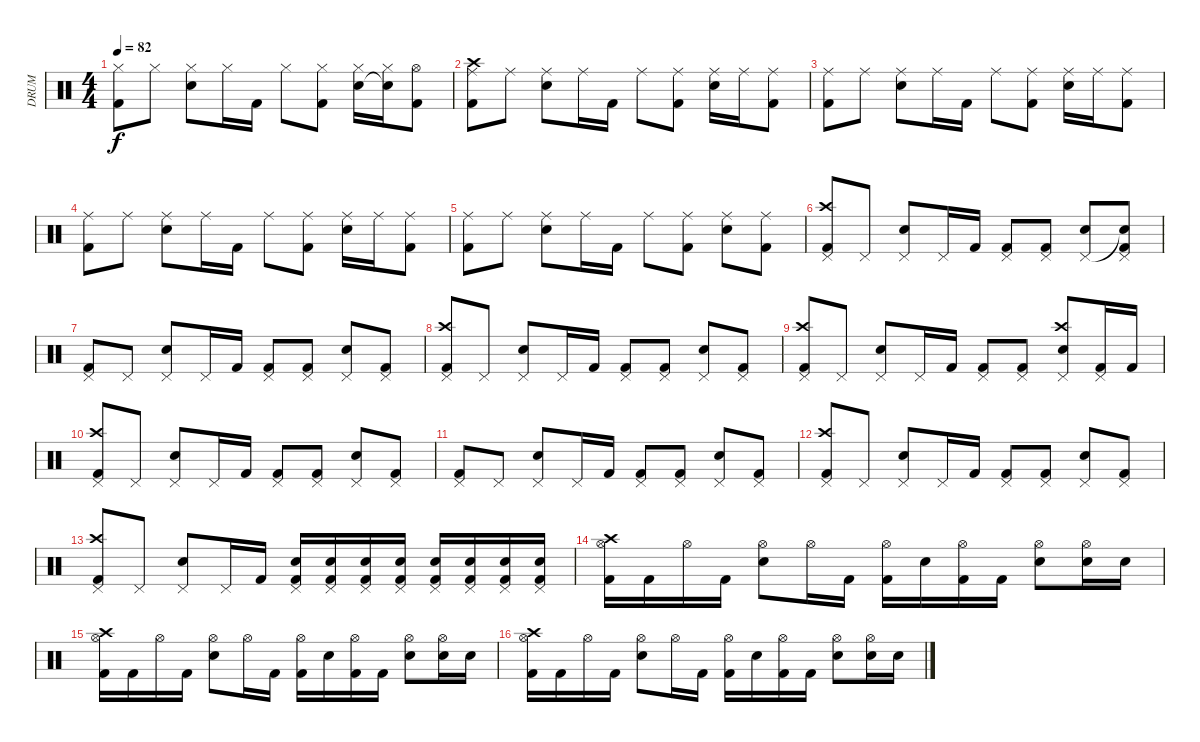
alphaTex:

\track ("DRUM" "DRUM") {instrument percussion}
\staff {score}
\articulation defaults
\ts (4 4)
\tempo 82
\clef neutral
\ks c
("Hi-Hat (closed)" "Kick (hit) 2").8{dy f} "Hi-Hat (closed)".8 ("Hi-Hat (closed)" "Electric Snare (hit)").8 "Hi-Hat (closed)".16 "Kick (hit) 2".16 "Hi-Hat (closed)".8 ("Hi-Hat (closed)" "Kick (hit) 2").8 ("Hi-Hat (closed)" "Electric Snare (hit)").16 ("Hi-Hat (closed)" "Snare (hit)"{t}).16 ("Hi-Hat (open)" "Kick (hit) 2").8 |
("Crash high (hit)" "Ride (middle)" "Kick (hit) 2").8 "Ride (middle)".8 ("Ride (middle)" "Electric Snare (hit)").8 "Ride (middle)".16 "Kick (hit) 2".16 "Ride (middle)".8 ("Ride (middle)" "Kick (hit) 2").8 ("Ride (middle)" "Electric Snare (hit)").16 "Ride (middle)".16 ("Ride (middle)" "Kick (hit) 2").8 |
("Ride (middle)" "Kick (hit) 2").8 "Ride (middle)".8 ("Ride (middle)" "Electric Snare (hit)").8 "Ride (middle)".16 "Kick (hit) 2".16 "Ride (middle)".8 ("Ride (middle)" "Kick (hit) 2").8 ("Ride (middle)" "Electric Snare (hit)").16 "Ride (middle)".16 ("Ride (middle)" "Kick (hit) 2").8 |
("Ride (middle)" "Kick (hit) 2").8 "Ride (middle)".8 ("Ride (middle)" "Electric Snare (hit)").8 "Ride (middle)".16 "Kick (hit) 2".16 "Ride (middle)".8 ("Ride (middle)" "Kick (hit) 2").8 ("Ride (middle)" "Electric Snare (hit)").16 "Ride (middle)".16 ("Ride (middle)" "Kick (hit) 2").8 |
("Ride (middle)" "Kick (hit) 2").8 "Ride (middle)".8 ("Ride (middle)" "Electric Snare (hit)").8 "Ride (middle)".16 "Kick (hit) 2".16 "Ride (middle)".8 ("Ride (middle)" "Kick (hit) 2").8 ("Ride (middle)" "Electric Snare (hit)").8 ("Ride (middle)" "Kick (hit) 2").8 |
("Crash high (hit)" "Pedal Hi-Hat (hit)" "Kick (hit) 2").8 "Pedal Hi-Hat (hit)".8 ("Pedal Hi-Hat (hit)" "Electric Snare (hit)").8 "Pedal Hi-Hat (hit)".16 "Kick (hit) 2".16 ("Pedal Hi-Hat (hit)" "Kick (hit) 2").8 ("Pedal Hi-Hat (hit)" "Kick (hit) 2").8 ("Pedal Hi-Hat (hit)" "Electric Snare (hit)").8 ("Snare (hit)"{t} "Pedal Hi-Hat (hit)" "Kick (hit) 2").8 |
("Pedal Hi-Hat (hit)" "Kick (hit) 2").8 "Pedal Hi-Hat (hit)".8 ("Pedal Hi-Hat (hit)" "Electric Snare (hit)").8 "Pedal Hi-Hat (hit)".16 "Kick (hit) 2".16 ("Pedal Hi-Hat (hit)" "Kick (hit) 2").8 ("Pedal Hi-Hat (hit)" "Kick (hit) 2").8 ("Pedal Hi-Hat (hit)" "Electric Snare (hit)").8 ("Pedal Hi-Hat (hit)" "Kick (hit) 2").8 |
("Crash high (hit)" "Pedal Hi-Hat (hit)" "Kick (hit) 2").8 "Pedal Hi-Hat (hit)".8 ("Pedal Hi-Hat (hit)" "Electric Snare (hit)").8 "Pedal Hi-Hat (hit)".16 "Kick (hit) 2".16 ("Pedal Hi-Hat (hit)" "Kick (hit) 2").8 ("Pedal Hi-Hat (hit)" "Kick (hit) 2").8 ("Pedal Hi-Hat (hit)" "Electric Snare (hit)").8 ("Pedal Hi-Hat (hit)" "Kick (hit) 2").8 |
("Crash high (hit)" "Pedal Hi-Hat (hit)" "Kick (hit) 2").8 "Pedal Hi-Hat (hit)".8 ("Pedal Hi-Hat (hit)" "Electric Snare (hit)").8 "Pedal Hi-Hat (hit)".16 "Kick (hit) 2".16 ("Pedal Hi-Hat (hit)" "Kick (hit) 2").8 ("Pedal Hi-Hat (hit)" "Kick (hit) 2").8 ("Crash high (hit)" "Pedal Hi-Hat (hit)" "Electric Snare (hit)").8 ("Pedal Hi-Hat (hit)" "Kick (hit) 2").16 "Kick (hit) 2".16 |
("Crash high (hit)" "Pedal Hi-Hat (hit)" "Kick (hit) 2").8 "Pedal Hi-Hat (hit)".8 ("Pedal Hi-Hat (hit)" "Electric Snare (hit)").8 "Pedal Hi-Hat (hit)".16 "Kick (hit) 2".16 ("Pedal Hi-Hat (hit)" "Kick (hit) 2").8 ("Pedal Hi-Hat (hit)" "Kick (hit) 2").8 ("Pedal Hi-Hat (hit)" "Electric Snare (hit)").8 ("Pedal Hi-Hat (hit)" "Kick (hit) 2").8 |
("Pedal Hi-Hat (hit)" "Kick (hit) 2").8 "Pedal Hi-Hat (hit)".8 ("Pedal Hi-Hat (hit)" "Electric Snare (hit)").8 "Pedal Hi-Hat (hit)".16 "Kick (hit) 2".16 ("Pedal Hi-Hat (hit)" "Kick (hit) 2").8 ("Pedal Hi-Hat (hit)" "Kick (hit) 2").8 ("Pedal Hi-Hat (hit)" "Electric Snare (hit)").8 ("Pedal Hi-Hat (hit)" "Kick (hit) 2").8 |
("Crash high (hit)" "Pedal Hi-Hat (hit)" "Kick (hit) 2").8 "Pedal Hi-Hat (hit)".8 ("Pedal Hi-Hat (hit)" "Electric Snare (hit)").8 "Pedal Hi-Hat (hit)".16 "Kick (hit) 2".16 ("Pedal Hi-Hat (hit)" "Kick (hit) 2").8 ("Pedal Hi-Hat (hit)" "Kick (hit) 2").8 ("Pedal Hi-Hat (hit)" "Electric Snare (hit)").8 ("Pedal Hi-Hat (hit)" "Kick (hit) 2").8 |
("Crash high (hit)" "Pedal Hi-Hat (hit)" "Kick (hit) 2").8 "Pedal Hi-Hat (hit)".8 ("Pedal Hi-Hat (hit)" "Electric Snare (hit)").8 "Pedal Hi-Hat (hit)".16 "Kick (hit) 2".16 ("Pedal Hi-Hat (hit)" "Kick (hit) 2" "Electric Snare (hit)").16 ("Pedal Hi-Hat (hit)" "Kick (hit) 2" "Electric Snare (hit)").16 ("Pedal Hi-Hat (hit)" "Kick (hit) 2" "Electric Snare (hit)").16 ("Pedal Hi-Hat (hit)" "Kick (hit) 2" "Electric Snare (hit)").16 ("Pedal Hi-Hat (hit)" "Kick (hit) 2" "Electric Snare (hit)").16 ("Pedal Hi-Hat (hit)" "Kick (hit) 2" "Electric Snare (hit)").16 ("Pedal Hi-Hat (hit)" "Kick (hit) 2" "Electric Snare (hit)").16 ("Pedal Hi-Hat (hit)" "Kick (hit) 2" "Electric Snare (hit)").16 |
("Crash high (hit)" "Hi-Hat (open)" "Kick (hit) 2").16 "Kick (hit) 2".16 "Hi-Hat (open)".16 "Kick (hit) 2".16 ("Hi-Hat (open)" "Electric Snare (hit)").8 "Hi-Hat (open)".16 "Kick (hit) 2".16 ("Hi-Hat (open)" "Kick (hit) 2").16 "Electric Snare (hit)".16 ("Hi-Hat (open)" "Kick (hit) 2").16 "Kick (hit) 2".16 ("Hi-Hat (open)" "Electric Snare (hit)").8 ("Hi-Hat (open)" "Electric Snare (hit)").16 "Electric Snare (hit)".16 |
("Crash high (hit)" "Hi-Hat (open)" "Kick (hit) 2").16 "Kick (hit) 2".16 "Hi-Hat (open)".16 "Kick (hit) 2".16 ("Hi-Hat (open)" "Electric Snare (hit)").8 "Hi-Hat (open)".16 "Kick (hit) 2".16 ("Hi-Hat (open)" "Kick (hit) 2").16 "Electric Snare (hit)".16 ("Hi-Hat (open)" "Kick (hit) 2").16 "Kick (hit) 2".16 ("Hi-Hat (open)" "Electric Snare (hit)").8 ("Hi-Hat (open)" "Electric Snare (hit)").16 "Electric Snare (hit)".16 |
("Crash high (hit)" "Hi-Hat (open)" "Kick (hit) 2").16 "Kick (hit) 2".16 "Hi-Hat (open)".16 "Kick (hit) 2".16 ("Hi-Hat (open)" "Electric Snare (hit)").8 "Hi-Hat (open)".16 "Kick (hit) 2".16 ("Hi-Hat (open)" "Kick (hit) 2").16 "Electric Snare (hit)".16 ("Hi-Hat (open)" "Kick (hit) 2").16 "Kick (hit) 2".16 ("Hi-Hat (open)" "Electric Snare (hit)").8 ("Hi-Hat (open)" "Electric Snare (hit)").16 "Electric Snare (hit)".16
